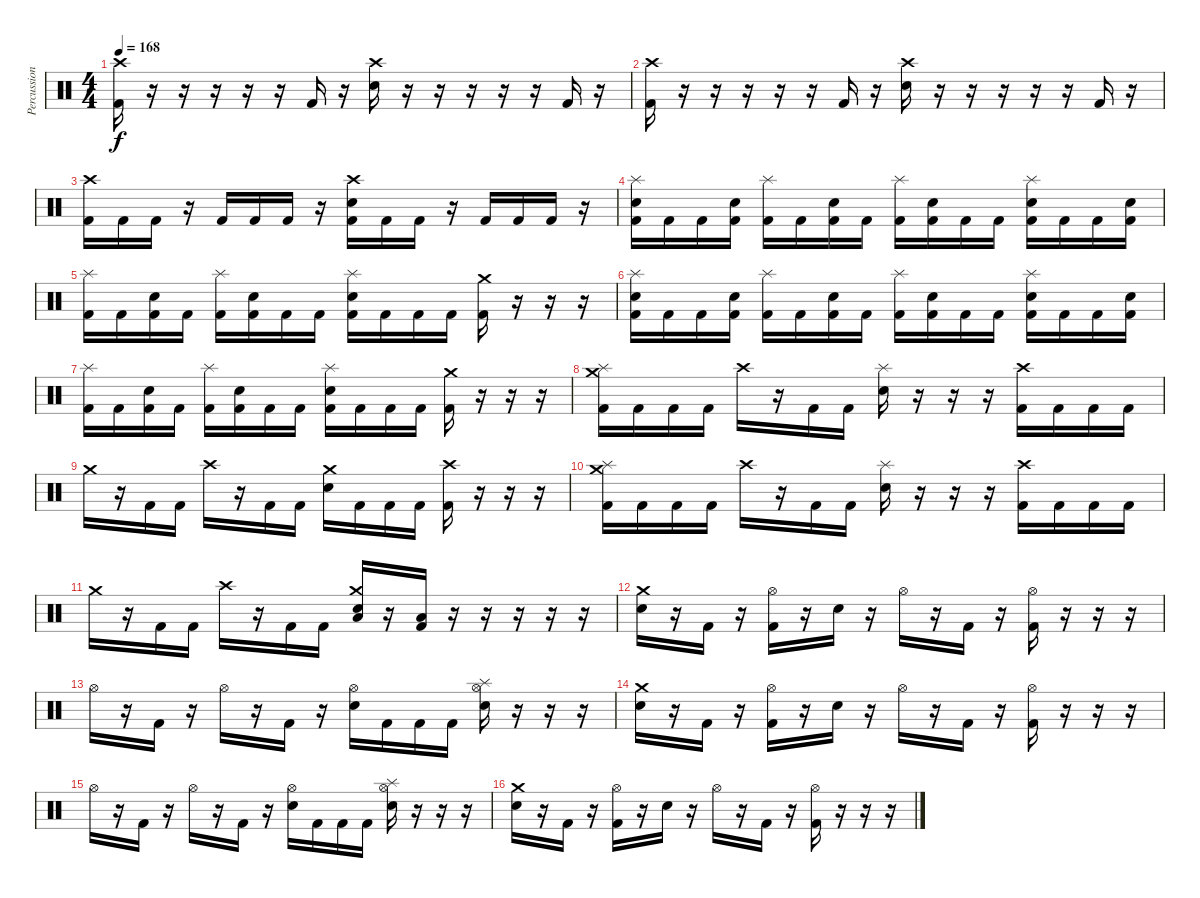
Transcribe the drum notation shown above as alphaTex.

\track ("Percussion" "Percussion") {instrument percussion}
\staff {score}
\articulation defaults
\ts (4 4)
\tempo 168
\clef neutral
\ks c
("Crash high (hit)" "Kick (hit) 2").16{dy f} r.16 r.16 r.16 r.16 r.16 "Kick (hit) 2".16 r.16 ("Crash high (hit)" "Electric Snare (hit)").16 r.16 r.16 r.16 r.16 r.16 "Kick (hit) 2".16 r.16 |
("Crash high (hit)" "Kick (hit) 2").16 r.16 r.16 r.16 r.16 r.16 "Kick (hit) 2".16 r.16 ("Crash high (hit)" "Electric Snare (hit)").16 r.16 r.16 r.16 r.16 r.16 "Kick (hit) 2".16 r.16 |
("Crash high (hit)" "Kick (hit) 2").16 "Kick (hit) 2".16 "Kick (hit) 2".16 r.16 "Kick (hit) 2".16 "Kick (hit) 2".16 "Kick (hit) 2".16 r.16 ("Crash high (hit)" "Electric Snare (hit)" "Kick (hit) 2").16 "Kick (hit) 2".16 "Kick (hit) 2".16 r.16 "Kick (hit) 2".16 "Kick (hit) 2".16 "Kick (hit) 2".16 r.16 |
("Splash (hit)" "Electric Snare (hit)" "Kick (hit) 2").16 "Kick (hit) 2".16 "Kick (hit) 2".16 ("Electric Snare (hit)" "Kick (hit) 2").16 ("Splash (hit)" "Kick (hit) 2").16 "Kick (hit) 2".16 ("Electric Snare (hit)" "Kick (hit) 2").16 "Kick (hit) 2".16 ("Splash (hit)" "Kick (hit) 2").16 ("Electric Snare (hit)" "Kick (hit) 2").16 "Kick (hit) 2".16 "Kick (hit) 2".16 ("Splash (hit)" "Electric Snare (hit)" "Kick (hit) 2").16 "Kick (hit) 2".16 "Kick (hit) 2".16 ("Electric Snare (hit)" "Kick (hit) 2").16 |
("Splash (hit)" "Kick (hit) 2").16 "Kick (hit) 2".16 ("Electric Snare (hit)" "Kick (hit) 2").16 "Kick (hit) 2".16 ("Splash (hit)" "Kick (hit) 2").16 ("Electric Snare (hit)" "Kick (hit) 2").16 "Kick (hit) 2".16 "Kick (hit) 2".16 ("Splash (hit)" "Electric Snare (hit)" "Kick (hit) 2").16 "Kick (hit) 2".16 "Kick (hit) 2".16 "Kick (hit) 2".16 ("Crash medium (hit)" "Kick (hit) 2").16 r.16 r.16 r.16 |
("Splash (hit)" "Electric Snare (hit)" "Kick (hit) 2").16 "Kick (hit) 2".16 "Kick (hit) 2".16 ("Electric Snare (hit)" "Kick (hit) 2").16 ("Splash (hit)" "Kick (hit) 2").16 "Kick (hit) 2".16 ("Electric Snare (hit)" "Kick (hit) 2").16 "Kick (hit) 2".16 ("Splash (hit)" "Kick (hit) 2").16 ("Electric Snare (hit)" "Kick (hit) 2").16 "Kick (hit) 2".16 "Kick (hit) 2".16 ("Splash (hit)" "Electric Snare (hit)" "Kick (hit) 2").16 "Kick (hit) 2".16 "Kick (hit) 2".16 ("Electric Snare (hit)" "Kick (hit) 2").16 |
("Splash (hit)" "Kick (hit) 2").16 "Kick (hit) 2".16 ("Electric Snare (hit)" "Kick (hit) 2").16 "Kick (hit) 2".16 ("Splash (hit)" "Kick (hit) 2").16 ("Electric Snare (hit)" "Kick (hit) 2").16 "Kick (hit) 2".16 "Kick (hit) 2".16 ("Splash (hit)" "Electric Snare (hit)" "Kick (hit) 2").16 "Kick (hit) 2".16 "Kick (hit) 2".16 "Kick (hit) 2".16 ("Crash medium (hit)" "Kick (hit) 2").16 r.16 r.16 r.16 |
("Splash (hit)" "Crash medium (hit)" "Kick (hit) 2").16 "Kick (hit) 2".16 "Kick (hit) 2".16 "Kick (hit) 2".16 "Crash high (hit)".16 r.16 "Kick (hit) 2".16 "Kick (hit) 2".16 ("Splash (hit)" "Electric Snare (hit)").16 r.16 r.16 r.16 ("Crash high (hit)" "Kick (hit) 2").16 "Kick (hit) 2".16 "Kick (hit) 2".16 "Kick (hit) 2".16 |
"Crash medium (hit)".16 r.16 "Kick (hit) 2".16 "Kick (hit) 2".16 "Crash high (hit)".16 r.16 "Kick (hit) 2".16 "Kick (hit) 2".16 ("Crash medium (hit)" "Electric Snare (hit)").16 "Kick (hit) 2".16 "Kick (hit) 2".16 "Kick (hit) 2".16 ("Crash high (hit)" "Kick (hit) 2").16 r.16 r.16 r.16 |
("Splash (hit)" "Crash medium (hit)" "Kick (hit) 2").16 "Kick (hit) 2".16 "Kick (hit) 2".16 "Kick (hit) 2".16 "Crash high (hit)".16 r.16 "Kick (hit) 2".16 "Kick (hit) 2".16 ("Splash (hit)" "Electric Snare (hit)").16 r.16 r.16 r.16 ("Crash high (hit)" "Kick (hit) 2").16 "Kick (hit) 2".16 "Kick (hit) 2".16 "Kick (hit) 2".16 |
"Crash medium (hit)".16 r.16 "Kick (hit) 2".16 "Kick (hit) 2".16 "Crash high (hit)".16 r.16 "Kick (hit) 2".16 "Kick (hit) 2".16 ("Crash medium (hit)" "Electric Snare (hit)" "Low Floor Tom (hit)").16 r.16 ("Low Floor Tom (hit)" "Kick (hit) 2").16 r.16 r.16 r.16 r.16 r.16 |
("Crash medium (hit)" "Electric Snare (hit)").16 r.16 "Kick (hit) 2".16 r.16 ("Hi-Hat (open)" "Kick (hit) 2").16 r.16 "Electric Snare (hit)".16 r.16 "Hi-Hat (open)".16 r.16 "Kick (hit) 2".16 r.16 ("Hi-Hat (open)" "Kick (hit) 2").16 r.16 r.16 r.16 |
"Hi-Hat (open)".16 r.16 "Kick (hit) 2".16 r.16 "Hi-Hat (open)".16 r.16 "Kick (hit) 2".16 r.16 ("Hi-Hat (open)" "Electric Snare (hit)").16 "Kick (hit) 2".16 "Kick (hit) 2".16 "Kick (hit) 2".16 ("Hi-Hat (open)" "Splash (hit)" "Electric Snare (hit)").16 r.16 r.16 r.16 |
("Crash medium (hit)" "Electric Snare (hit)").16 r.16 "Kick (hit) 2".16 r.16 ("Hi-Hat (open)" "Kick (hit) 2").16 r.16 "Electric Snare (hit)".16 r.16 "Hi-Hat (open)".16 r.16 "Kick (hit) 2".16 r.16 ("Hi-Hat (open)" "Kick (hit) 2").16 r.16 r.16 r.16 |
"Hi-Hat (open)".16 r.16 "Kick (hit) 2".16 r.16 "Hi-Hat (open)".16 r.16 "Kick (hit) 2".16 r.16 ("Hi-Hat (open)" "Electric Snare (hit)").16 "Kick (hit) 2".16 "Kick (hit) 2".16 "Kick (hit) 2".16 ("Hi-Hat (open)" "Splash (hit)" "Electric Snare (hit)").16 r.16 r.16 r.16 |
("Crash medium (hit)" "Electric Snare (hit)").16 r.16 "Kick (hit) 2".16 r.16 ("Hi-Hat (open)" "Kick (hit) 2").16 r.16 "Electric Snare (hit)".16 r.16 "Hi-Hat (open)".16 r.16 "Kick (hit) 2".16 r.16 ("Hi-Hat (open)" "Kick (hit) 2").16 r.16 r.16 r.16
